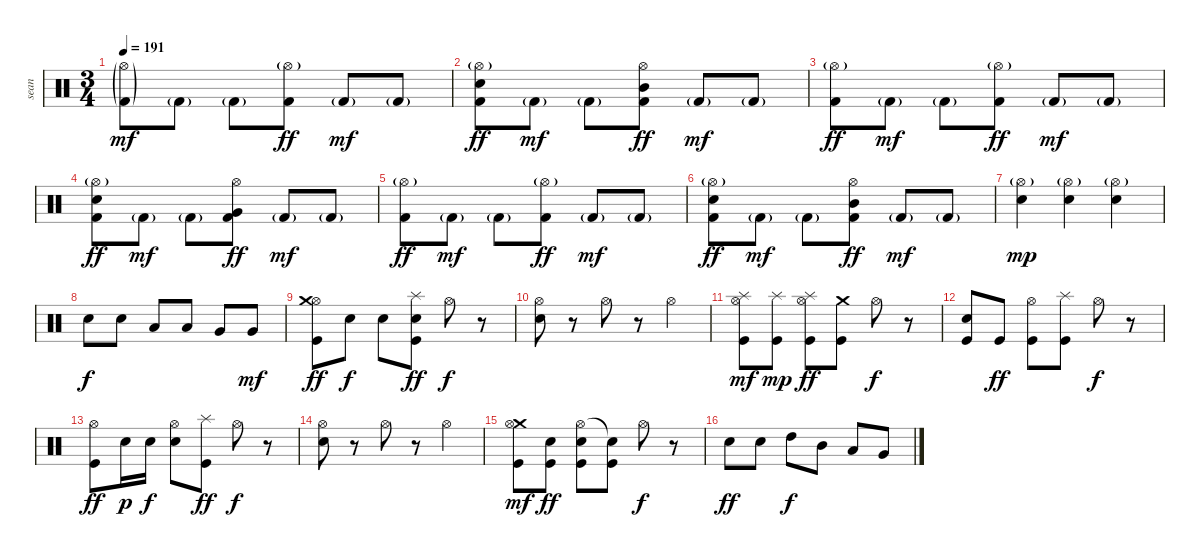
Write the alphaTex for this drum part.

\track ("sean" "sean") {instrument percussion}
\staff {score}
\articulation defaults
\ts (3 4)
\tempo 191
\clef neutral
\ks c
("Hi-Hat (open)"{g} "Kick (hit) 2"{g}).8{dy mf} "Kick (hit) 2"{g}.8 "Kick (hit) 2"{g}.8 ("Hi-Hat (open)"{g} "Kick (hit) 2").8{dy ff} "Kick (hit) 2"{g}.8{dy mf} "Kick (hit) 2"{g}.8 |
("Hi-Hat (open)"{g} "Kick (hit) 2" "Electric Snare (hit)").8{dy ff} "Kick (hit) 2"{g}.8{dy mf} "Kick (hit) 2"{g}.8 ("Hi-Hat (open)" "Kick (hit) 2" "Mid Tom (hit)").8{dy ff} "Kick (hit) 2"{g}.8{dy mf} "Kick (hit) 2"{g}.8 |
("Hi-Hat (open)"{g} "Kick (hit) 2").8{dy ff} "Kick (hit) 2"{g}.8{dy mf} "Kick (hit) 2"{g}.8 ("Hi-Hat (open)"{g} "Kick (hit) 2").8{dy ff} "Kick (hit) 2"{g}.8{dy mf} "Kick (hit) 2"{g}.8 |
("Hi-Hat (open)"{g} "Kick (hit) 2" "Electric Snare (hit)").8{dy ff} "Kick (hit) 2"{g}.8{dy mf} "Kick (hit) 2"{g}.8 ("Hi-Hat (open)" "Kick (hit) 2" "Very Low Tom (hit)").8{dy ff} "Kick (hit) 2"{g}.8{dy mf} "Kick (hit) 2"{g}.8 |
("Hi-Hat (open)"{g} "Kick (hit) 2").8{dy ff} "Kick (hit) 2"{g}.8{dy mf} "Kick (hit) 2"{g}.8 ("Hi-Hat (open)"{g} "Kick (hit) 2").8{dy ff} "Kick (hit) 2"{g}.8{dy mf} "Kick (hit) 2"{g}.8 |
("Hi-Hat (open)"{g} "Kick (hit) 2" "Electric Snare (hit)").8{dy ff} "Kick (hit) 2"{g}.8{dy mf} "Kick (hit) 2"{g}.8 ("Hi-Hat (open)" "Kick (hit) 2" "Mid Tom (hit)").8{dy ff} "Kick (hit) 2"{g}.8{dy mf} "Kick (hit) 2"{g}.8 |
("Hi-Hat (open)"{g} "Electric Snare (hit)").4{dy mp} ("Hi-Hat (open)"{g} "Electric Snare (hit)").4 ("Hi-Hat (open)"{g} "Electric Snare (hit)").4 |
"Electric Snare (hit)".8{dy f} "Electric Snare (hit)".8 "Low Tom (hit)".8 "Low Tom (hit)".8 "Very Low Tom (hit)".8 "Very Low Tom (hit)".8{dy mf} |
("Hi-Hat (open)" "Crash medium (hit)" "Kick (hit)").8{dy ff} "Electric Snare (hit)".8{dy f} "Electric Snare (hit)".8 ("Electric Snare (hit)" "Splash (hit)" "Kick (hit)").8{dy ff} "Hi-Hat (open)".8{dy f} r.8 |
("Hi-Hat (open)" "Electric Snare (hit)").8 r.8 "Hi-Hat (open)".8 r.8 "Hi-Hat (open)".4 |
("Hi-Hat (open)" "Splash (hit)" "Kick (hit)").8{dy mf} ("Splash (hit)" "Kick (hit)").8{dy mp} ("Hi-Hat (open)" "Splash (hit)" "Kick (hit)").8{dy ff} ("Crash medium (hit)" "Kick (hit)").8 "Hi-Hat (open)".8{dy f} r.8 |
("Electric Snare (hit)" "Kick (hit)").8 "Kick (hit)".8{dy ff} ("Hi-Hat (open)" "Kick (hit)").8 ("Splash (hit)" "Kick (hit)").8 "Hi-Hat (open)".8{dy f} r.8 |
("Hi-Hat (open)" "Kick (hit)").8{dy ff} "Electric Snare (hit)".16{dy p} "Electric Snare (hit)".16{dy f} ("Hi-Hat (open)" "Electric Snare (hit)").8 ("Splash (hit)" "Kick (hit)").8{dy ff} "Hi-Hat (open)".8{dy f} r.8 |
("Hi-Hat (open)" "Electric Snare (hit)").8 r.8 "Hi-Hat (open)".8 r.8 "Hi-Hat (open)".4 |
("Crash medium (hit)" "Hi-Hat (open)" "Kick (hit)").8{dy mf} ("Electric Snare (hit)" "Kick (hit)").8{dy ff} ("Hi-Hat (open)" "Electric Snare (hit)" "Kick (hit)").8 ("Snare (hit)"{t} "Kick (hit)").8 "Hi-Hat (open)".8{dy f} r.8 |
"Electric Snare (hit)".8{dy ff} "Electric Snare (hit)".8 "High Tom (hit)".8{dy f} "Mid Tom (hit)".8 "Low Tom (hit)".8 "Very Low Tom (hit)".8
